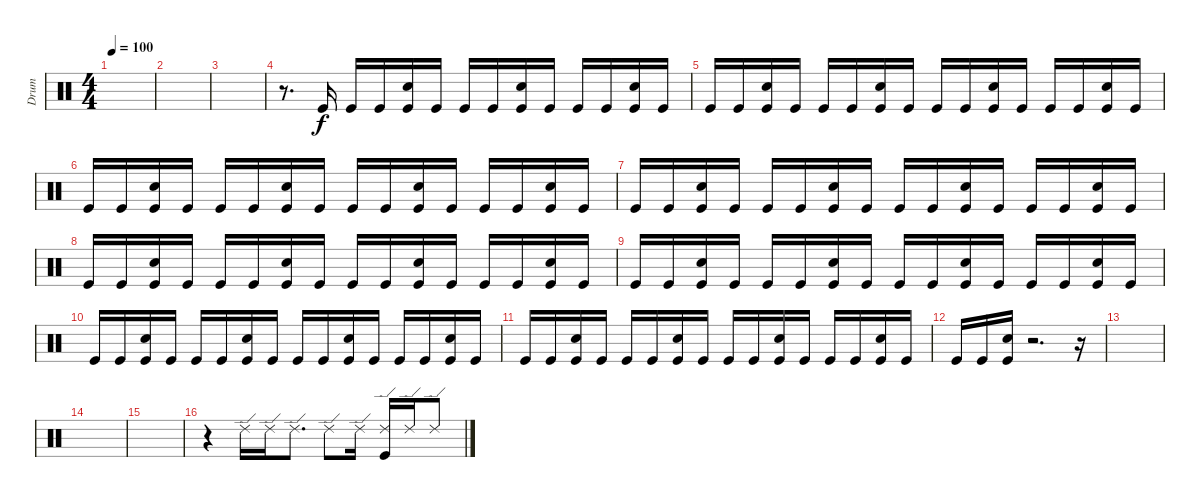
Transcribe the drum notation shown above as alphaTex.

\track ("Drum" "Drum") {instrument percussion}
\staff {score}
\articulation defaults
\ts (4 4)
\tempo 100
\clef neutral
\ks c
|
|
|
r.8{d} "Kick (hit)".16 "Kick (hit)".16 "Kick (hit)".16 ("Snare (hit) 2" "Kick (hit)").16 "Kick (hit)".16 "Kick (hit)".16 "Kick (hit)".16 ("Snare (hit) 2" "Kick (hit)").16 "Kick (hit)".16 "Kick (hit)".16 "Kick (hit)".16 ("Snare (hit) 2" "Kick (hit)").16 "Kick (hit)".16 |
"Kick (hit)".16 "Kick (hit)".16 ("Snare (hit) 2" "Kick (hit)").16 "Kick (hit)".16 "Kick (hit)".16 "Kick (hit)".16 ("Snare (hit) 2" "Kick (hit)").16 "Kick (hit)".16 "Kick (hit)".16 "Kick (hit)".16 ("Snare (hit) 2" "Kick (hit)").16 "Kick (hit)".16 "Kick (hit)".16 "Kick (hit)".16 ("Snare (hit) 2" "Kick (hit)").16 "Kick (hit)".16 |
"Kick (hit)".16 "Kick (hit)".16 ("Snare (hit) 2" "Kick (hit)").16 "Kick (hit)".16 "Kick (hit)".16 "Kick (hit)".16 ("Snare (hit) 2" "Kick (hit)").16 "Kick (hit)".16 "Kick (hit)".16 "Kick (hit)".16 ("Snare (hit) 2" "Kick (hit)").16 "Kick (hit)".16 "Kick (hit)".16 "Kick (hit)".16 ("Snare (hit) 2" "Kick (hit)").16 "Kick (hit)".16 |
"Kick (hit)".16 "Kick (hit)".16 ("Snare (hit) 2" "Kick (hit)").16 "Kick (hit)".16 "Kick (hit)".16 "Kick (hit)".16 ("Snare (hit) 2" "Kick (hit)").16 "Kick (hit)".16 "Kick (hit)".16 "Kick (hit)".16 ("Snare (hit) 2" "Kick (hit)").16 "Kick (hit)".16 "Kick (hit)".16 "Kick (hit)".16 ("Snare (hit) 2" "Kick (hit)").16 "Kick (hit)".16 |
"Kick (hit)".16 "Kick (hit)".16 ("Snare (hit) 2" "Kick (hit)").16 "Kick (hit)".16 "Kick (hit)".16 "Kick (hit)".16 ("Snare (hit) 2" "Kick (hit)").16 "Kick (hit)".16 "Kick (hit)".16 "Kick (hit)".16 ("Snare (hit) 2" "Kick (hit)").16 "Kick (hit)".16 "Kick (hit)".16 "Kick (hit)".16 ("Snare (hit) 2" "Kick (hit)").16 "Kick (hit)".16 |
"Kick (hit)".16 "Kick (hit)".16 ("Snare (hit) 2" "Kick (hit)").16 "Kick (hit)".16 "Kick (hit)".16 "Kick (hit)".16 ("Snare (hit) 2" "Kick (hit)").16 "Kick (hit)".16 "Kick (hit)".16 "Kick (hit)".16 ("Snare (hit) 2" "Kick (hit)").16 "Kick (hit)".16 "Kick (hit)".16 "Kick (hit)".16 ("Snare (hit) 2" "Kick (hit)").16 "Kick (hit)".16 |
"Kick (hit)".16 "Kick (hit)".16 ("Snare (hit) 2" "Kick (hit)").16 "Kick (hit)".16 "Kick (hit)".16 "Kick (hit)".16 ("Snare (hit) 2" "Kick (hit)").16 "Kick (hit)".16 "Kick (hit)".16 "Kick (hit)".16 ("Snare (hit) 2" "Kick (hit)").16 "Kick (hit)".16 "Kick (hit)".16 "Kick (hit)".16 ("Snare (hit) 2" "Kick (hit)").16 "Kick (hit)".16 |
"Kick (hit)".16 "Kick (hit)".16 ("Snare (hit) 2" "Kick (hit)").16 "Kick (hit)".16 "Kick (hit)".16 "Kick (hit)".16 ("Snare (hit) 2" "Kick (hit)").16 "Kick (hit)".16 "Kick (hit)".16 "Kick (hit)".16 ("Snare (hit) 2" "Kick (hit)").16 "Kick (hit)".16 "Kick (hit)".16 "Kick (hit)".16 ("Snare (hit) 2" "Kick (hit)").16 "Kick (hit)".16 |
"Kick (hit)".16 "Kick (hit)".16 ("Snare (hit) 2" "Kick (hit)").16 r.2{d} r.16 |
|
|
|
r.4 "Ride (edge) 2".16 "Ride (edge) 2".16 "Ride (edge) 2".8{d} "Ride (edge) 2".8 "Ride (edge) 2".16 ("Ride (edge) 2" "Kick (hit)").16 "Ride (edge) 2".16 "Ride (edge) 2".8
